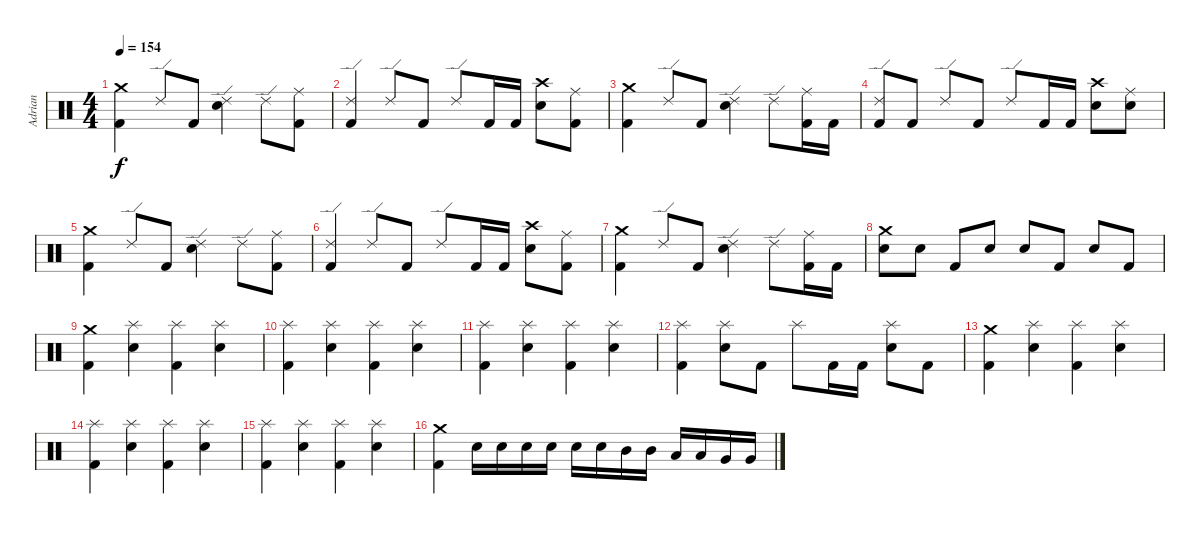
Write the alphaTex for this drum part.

\track ("Adrian" "Adrian") {instrument percussion}
\staff {score}
\articulation defaults
\ts (4 4)
\tempo 154
\clef neutral
\ks c
("Crash medium (hit)" "Kick (hit) 2").4{dy f} "Ride (edge) 2".8 "Kick (hit) 2".8 ("Ride (edge) 2" "Electric Snare (hit)").4 "Ride (edge) 2".8 ("Ride (middle)" "Kick (hit) 2").8 |
("Ride (edge) 2" "Kick (hit) 2").4 "Ride (edge) 2".8 "Kick (hit) 2".8 "Ride (edge) 2".8 "Kick (hit) 2".16 "Kick (hit) 2".16 ("Crash high (hit)" "Electric Snare (hit)").8 ("Ride (middle)" "Kick (hit) 2").8 |
("Crash medium (hit)" "Kick (hit) 2").4 "Ride (edge) 2".8 "Kick (hit) 2".8 ("Ride (edge) 2" "Electric Snare (hit)").4 "Ride (edge) 2".8 ("Ride (middle)" "Kick (hit) 2").16 "Kick (hit) 2".16 |
("Ride (edge) 2" "Kick (hit) 2").8 "Kick (hit) 2".8 "Ride (edge) 2".8 "Kick (hit) 2".8 "Ride (edge) 2".8 "Kick (hit) 2".16 "Kick (hit) 2".16 ("Crash high (hit)" "Electric Snare (hit)").8 ("Ride (middle)" "Electric Snare (hit)").8 |
("Crash medium (hit)" "Kick (hit) 2").4 "Ride (edge) 2".8 "Kick (hit) 2".8 ("Ride (edge) 2" "Electric Snare (hit)").4 "Ride (edge) 2".8 ("Ride (middle)" "Kick (hit) 2").8 |
("Ride (edge) 2" "Kick (hit) 2").4 "Ride (edge) 2".8 "Kick (hit) 2".8 "Ride (edge) 2".8 "Kick (hit) 2".16 "Kick (hit) 2".16 ("Crash high (hit)" "Electric Snare (hit)").8 ("Ride (middle)" "Kick (hit) 2").8 |
("Crash medium (hit)" "Kick (hit) 2").4 "Ride (edge) 2".8 "Kick (hit) 2".8 ("Ride (edge) 2" "Electric Snare (hit)").4 "Ride (edge) 2".8 ("Ride (middle)" "Kick (hit) 2").16 "Kick (hit) 2".16 |
("Crash medium (hit)" "Electric Snare (hit)").8 "Electric Snare (hit)".8 "Kick (hit) 2".8 "Electric Snare (hit)".8 "Electric Snare (hit)".8 "Kick (hit) 2".8 "Electric Snare (hit)".8 "Kick (hit) 2".8 |
("Crash medium (hit)" "Kick (hit) 2").4 ("Splash (hit)" "Electric Snare (hit)").4 ("Splash (hit)" "Kick (hit) 2").4 ("Splash (hit)" "Electric Snare (hit)").4 |
("Splash (hit)" "Kick (hit) 2").4 ("Splash (hit)" "Electric Snare (hit)").4 ("Splash (hit)" "Kick (hit) 2").4 ("Splash (hit)" "Electric Snare (hit)").4 |
("Splash (hit)" "Kick (hit) 2").4 ("Splash (hit)" "Electric Snare (hit)").4 ("Splash (hit)" "Kick (hit) 2").4 ("Splash (hit)" "Electric Snare (hit)").4 |
("Splash (hit)" "Kick (hit) 2").4 ("Splash (hit)" "Electric Snare (hit)").8 "Kick (hit) 2".8 "Splash (hit)".8 "Kick (hit) 2".16 "Kick (hit) 2".16 ("Splash (hit)" "Electric Snare (hit)").8 "Kick (hit) 2".8 |
("Crash medium (hit)" "Kick (hit) 2").4 ("Splash (hit)" "Electric Snare (hit)").4 ("Splash (hit)" "Kick (hit) 2").4 ("Splash (hit)" "Electric Snare (hit)").4 |
("Splash (hit)" "Kick (hit) 2").4 ("Splash (hit)" "Electric Snare (hit)").4 ("Splash (hit)" "Kick (hit) 2").4 ("Splash (hit)" "Electric Snare (hit)").4 |
("Splash (hit)" "Kick (hit) 2").4 ("Splash (hit)" "Electric Snare (hit)").4 ("Splash (hit)" "Kick (hit) 2").4 ("Splash (hit)" "Electric Snare (hit)").4 |
("Crash medium (hit)" "Kick (hit) 2").4 "Electric Snare (hit)".16 "Electric Snare (hit)".16 "Electric Snare (hit)".16 "Electric Snare (hit)".16 "Electric Snare (hit)".16 "Electric Snare (hit)".16 "Mid Tom (hit)".16 "Mid Tom (hit)".16 "Low Tom (hit)".16 "Low Tom (hit)".16 "Very Low Tom (hit)".16 "Very Low Tom (hit)".16
